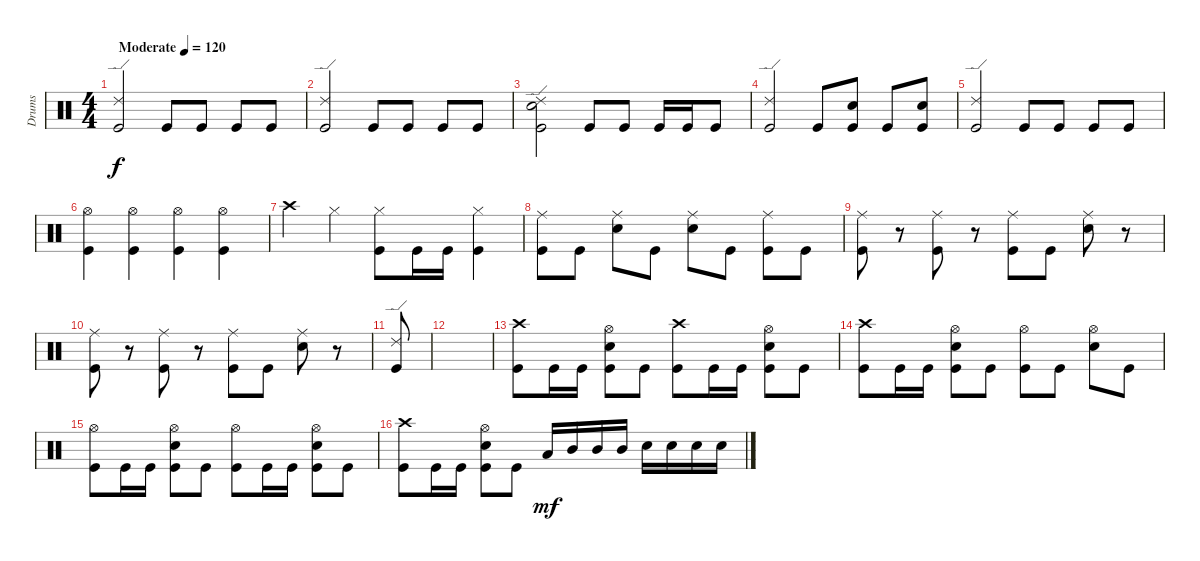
\track ("Drums" "Drums") {instrument percussion}
\staff {score}
\articulation defaults
\ts (4 4)
\tempo (120 "Moderate")
\clef neutral
\ks c
("Ride (edge) 2" "Kick (hit)").2{dy f} "Kick (hit)".8 "Kick (hit)".8 "Kick (hit)".8 "Kick (hit)".8 |
("Ride (edge) 2" "Kick (hit)").2 "Kick (hit)".8 "Kick (hit)".8 "Kick (hit)".8 "Kick (hit)".8 |
("Ride (edge) 2" "Kick (hit)" "Snare (hit) 2").2 "Kick (hit)".8 "Kick (hit)".8 "Kick (hit)".16 "Kick (hit)".16 "Kick (hit)".8 |
("Ride (edge) 2" "Kick (hit)").2 "Kick (hit)".8 ("Kick (hit)" "Snare (hit) 2").8 "Kick (hit)".8 ("Kick (hit)" "Snare (hit) 2").8 |
("Ride (edge) 2" "Kick (hit)").2 "Kick (hit)".8 "Kick (hit)".8 "Kick (hit)".8 "Kick (hit)".8 |
("Hi-Hat (open)" "Kick (hit)").4 ("Hi-Hat (open)" "Kick (hit)").4 ("Hi-Hat (open)" "Kick (hit)").4 ("Hi-Hat (open)" "Kick (hit)").4 |
"Crash high (hit)".4 "Hi-Hat (closed)".4 ("Hi-Hat (closed)" "Kick (hit)").8 "Kick (hit)".16 "Kick (hit)".16 ("Kick (hit)" "Hi-Hat (closed)").4 |
("Kick (hit)" "Ride (middle)").8 "Kick (hit)".8 ("Snare (hit) 2" "Ride (middle)").8 "Kick (hit)".8 ("Snare (hit) 2" "Ride (middle)").8 "Kick (hit)".8 ("Kick (hit)" "Ride (middle)").8 "Kick (hit)".8 |
("Ride (middle)" "Kick (hit)").8 r.8 ("Ride (middle)" "Kick (hit)").8 r.8 ("Ride (middle)" "Kick (hit)").8 "Kick (hit)".8 ("Ride (middle)" "Snare (hit) 2").8 r.8 |
("Ride (middle)" "Kick (hit)").8 r.8 ("Ride (middle)" "Kick (hit)").8 r.8 ("Ride (middle)" "Kick (hit)").8 "Kick (hit)".8 ("Ride (middle)" "Snare (hit) 2").8 r.8 |
("Kick (hit)" "Ride (edge) 2").8 |
|
("Kick (hit)" "Crash high (hit)").8 "Kick (hit)".16 "Kick (hit)".16 ("Kick (hit)" "Snare (hit) 2" "Hi-Hat (open)").8 "Kick (hit)".8 ("Kick (hit)" "Crash high (hit)").8 "Kick (hit)".16 "Kick (hit)".16 ("Kick (hit)" "Snare (hit) 2" "Hi-Hat (open)").8 "Kick (hit)".8 |
("Kick (hit)" "Crash high (hit)").8 "Kick (hit)".16 "Kick (hit)".16 ("Kick (hit)" "Snare (hit) 2" "Hi-Hat (open)").8 "Kick (hit)".8 ("Kick (hit)" "Hi-Hat (open)").8 "Kick (hit)".8 ("Snare (hit) 2" "Hi-Hat (open)").8 "Kick (hit)".8 |
("Kick (hit)" "Hi-Hat (open)").8 "Kick (hit)".16 "Kick (hit)".16 ("Kick (hit)" "Snare (hit) 2" "Hi-Hat (open)").8 "Kick (hit)".8 ("Kick (hit)" "Hi-Hat (open)").8 "Kick (hit)".16 "Kick (hit)".16 ("Kick (hit)" "Snare (hit) 2" "Hi-Hat (open)").8 "Kick (hit)".8 |
("Kick (hit)" "Crash high (hit)").8 "Kick (hit)".16 "Kick (hit)".16 ("Kick (hit)" "Snare (hit) 2" "Hi-Hat (open)").8 "Kick (hit)".8 "Low Tom (hit)".16{dy mf} "Mid Tom (hit)".16 "Mid Tom (hit)".16 "Mid Tom (hit)".16 "Snare (hit) 2".16 "Snare (hit) 2".16 "Snare (hit) 2".16 "Snare (hit) 2".16
